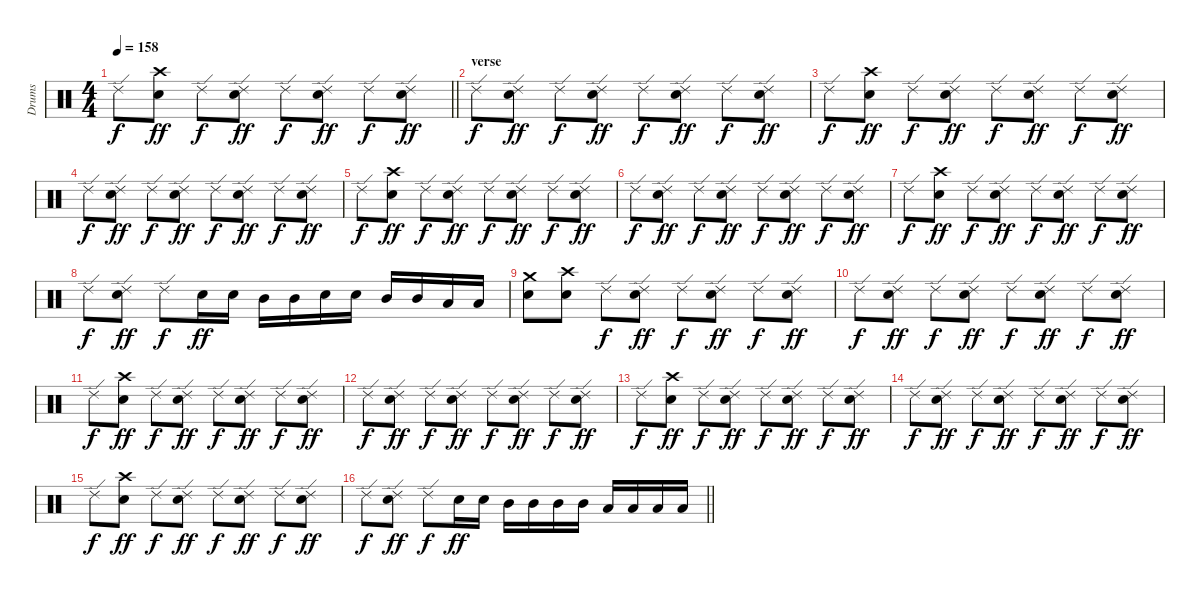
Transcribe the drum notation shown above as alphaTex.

\track ("Drums" "Drums") {instrument percussion}
\staff {score}
\articulation defaults
\ts (4 4)
\tempo 158
\clef neutral
\barLineRight lightlight
\ks c "Ride (edge) 2".8{dy f}
("Crash high (hit)" "Snare (hit) 2").8{dy ff} "Ride (edge) 2".8{dy f} ("Ride (edge) 2" "Snare (hit) 2").8{dy ff} "Ride (edge) 2".8{dy f} ("Ride (edge) 2" "Snare (hit) 2").8{dy ff} "Ride (edge) 2".8{dy f} ("Ride (edge) 2" "Snare (hit) 2").8{dy ff} |
\section ("" "verse")
"Ride (edge) 2".8{dy f} ("Ride (edge) 2" "Snare (hit) 2").8{dy ff} "Ride (edge) 2".8{dy f} ("Ride (edge) 2" "Snare (hit) 2").8{dy ff} "Ride (edge) 2".8{dy f} ("Ride (edge) 2" "Snare (hit) 2").8{dy ff} "Ride (edge) 2".8{dy f} ("Ride (edge) 2" "Snare (hit) 2").8{dy ff} |
"Ride (edge) 2".8{dy f} ("Crash high (hit)" "Snare (hit) 2").8{dy ff} "Ride (edge) 2".8{dy f} ("Ride (edge) 2" "Snare (hit) 2").8{dy ff} "Ride (edge) 2".8{dy f} ("Ride (edge) 2" "Snare (hit) 2").8{dy ff} "Ride (edge) 2".8{dy f} ("Ride (edge) 2" "Snare (hit) 2").8{dy ff} |
"Ride (edge) 2".8{dy f} ("Ride (edge) 2" "Snare (hit) 2").8{dy ff} "Ride (edge) 2".8{dy f} ("Ride (edge) 2" "Snare (hit) 2").8{dy ff} "Ride (edge) 2".8{dy f} ("Ride (edge) 2" "Snare (hit) 2").8{dy ff} "Ride (edge) 2".8{dy f} ("Ride (edge) 2" "Snare (hit) 2").8{dy ff} |
"Ride (edge) 2".8{dy f} ("Crash high (hit)" "Snare (hit) 2").8{dy ff} "Ride (edge) 2".8{dy f} ("Ride (edge) 2" "Snare (hit) 2").8{dy ff} "Ride (edge) 2".8{dy f} ("Ride (edge) 2" "Snare (hit) 2").8{dy ff} "Ride (edge) 2".8{dy f} ("Ride (edge) 2" "Snare (hit) 2").8{dy ff} |
"Ride (edge) 2".8{dy f} ("Ride (edge) 2" "Snare (hit) 2").8{dy ff} "Ride (edge) 2".8{dy f} ("Ride (edge) 2" "Snare (hit) 2").8{dy ff} "Ride (edge) 2".8{dy f} ("Ride (edge) 2" "Snare (hit) 2").8{dy ff} "Ride (edge) 2".8{dy f} ("Ride (edge) 2" "Snare (hit) 2").8{dy ff} |
"Ride (edge) 2".8{dy f} ("Crash high (hit)" "Snare (hit) 2").8{dy ff} "Ride (edge) 2".8{dy f} ("Ride (edge) 2" "Snare (hit) 2").8{dy ff} "Ride (edge) 2".8{dy f} ("Ride (edge) 2" "Snare (hit) 2").8{dy ff} "Ride (edge) 2".8{dy f} ("Ride (edge) 2" "Snare (hit) 2").8{dy ff} |
"Ride (edge) 2".8{dy f} ("Ride (edge) 2" "Snare (hit) 2").8{dy ff} "Ride (edge) 2".8{dy f} "Snare (hit) 2".16{dy ff} "Snare (hit) 2".16 "Mid Tom (hit)".16 "Mid Tom (hit)".16 "Snare (hit) 2".16 "Snare (hit) 2".16 "Mid Tom (hit)".16 "Mid Tom (hit)".16 "Low Tom (hit)".16 "Low Tom (hit)".16 |
("Crash medium (hit)" "Snare (hit) 2").8 ("Crash high (hit)" "Snare (hit) 2").8 "Ride (edge) 2".8{dy f} ("Ride (edge) 2" "Snare (hit) 2").8{dy ff} "Ride (edge) 2".8{dy f} ("Ride (edge) 2" "Snare (hit) 2").8{dy ff} "Ride (edge) 2".8{dy f} ("Ride (edge) 2" "Snare (hit) 2").8{dy ff} |
"Ride (edge) 2".8{dy f} ("Ride (edge) 2" "Snare (hit) 2").8{dy ff} "Ride (edge) 2".8{dy f} ("Ride (edge) 2" "Snare (hit) 2").8{dy ff} "Ride (edge) 2".8{dy f} ("Ride (edge) 2" "Snare (hit) 2").8{dy ff} "Ride (edge) 2".8{dy f} ("Ride (edge) 2" "Snare (hit) 2").8{dy ff} |
"Ride (edge) 2".8{dy f} ("Crash high (hit)" "Snare (hit) 2").8{dy ff} "Ride (edge) 2".8{dy f} ("Ride (edge) 2" "Snare (hit) 2").8{dy ff} "Ride (edge) 2".8{dy f} ("Ride (edge) 2" "Snare (hit) 2").8{dy ff} "Ride (edge) 2".8{dy f} ("Ride (edge) 2" "Snare (hit) 2").8{dy ff} |
"Ride (edge) 2".8{dy f} ("Ride (edge) 2" "Snare (hit) 2").8{dy ff} "Ride (edge) 2".8{dy f} ("Ride (edge) 2" "Snare (hit) 2").8{dy ff} "Ride (edge) 2".8{dy f} ("Ride (edge) 2" "Snare (hit) 2").8{dy ff} "Ride (edge) 2".8{dy f} ("Ride (edge) 2" "Snare (hit) 2").8{dy ff} |
"Ride (edge) 2".8{dy f} ("Crash high (hit)" "Snare (hit) 2").8{dy ff} "Ride (edge) 2".8{dy f} ("Ride (edge) 2" "Snare (hit) 2").8{dy ff} "Ride (edge) 2".8{dy f} ("Ride (edge) 2" "Snare (hit) 2").8{dy ff} "Ride (edge) 2".8{dy f} ("Ride (edge) 2" "Snare (hit) 2").8{dy ff} |
"Ride (edge) 2".8{dy f} ("Ride (edge) 2" "Snare (hit) 2").8{dy ff} "Ride (edge) 2".8{dy f} ("Ride (edge) 2" "Snare (hit) 2").8{dy ff} "Ride (edge) 2".8{dy f} ("Ride (edge) 2" "Snare (hit) 2").8{dy ff} "Ride (edge) 2".8{dy f} ("Ride (edge) 2" "Snare (hit) 2").8{dy ff} |
"Ride (edge) 2".8{dy f} ("Crash high (hit)" "Snare (hit) 2").8{dy ff} "Ride (edge) 2".8{dy f} ("Ride (edge) 2" "Snare (hit) 2").8{dy ff} "Ride (edge) 2".8{dy f} ("Ride (edge) 2" "Snare (hit) 2").8{dy ff} "Ride (edge) 2".8{dy f} ("Ride (edge) 2" "Snare (hit) 2").8{dy ff} |
\barLineRight lightlight "Ride (edge) 2".8{dy f}
("Ride (edge) 2" "Snare (hit) 2").8{dy ff} "Ride (edge) 2".8{dy f} "Snare (hit) 2".16{dy ff} "Snare (hit) 2".16 "Mid Tom (hit)".16 "Mid Tom (hit)".16 "Mid Tom (hit)".16 "Mid Tom (hit)".16 "Low Tom (hit)".16 "Low Tom (hit)".16 "Low Tom (hit)".16 "Low Tom (hit)".16
